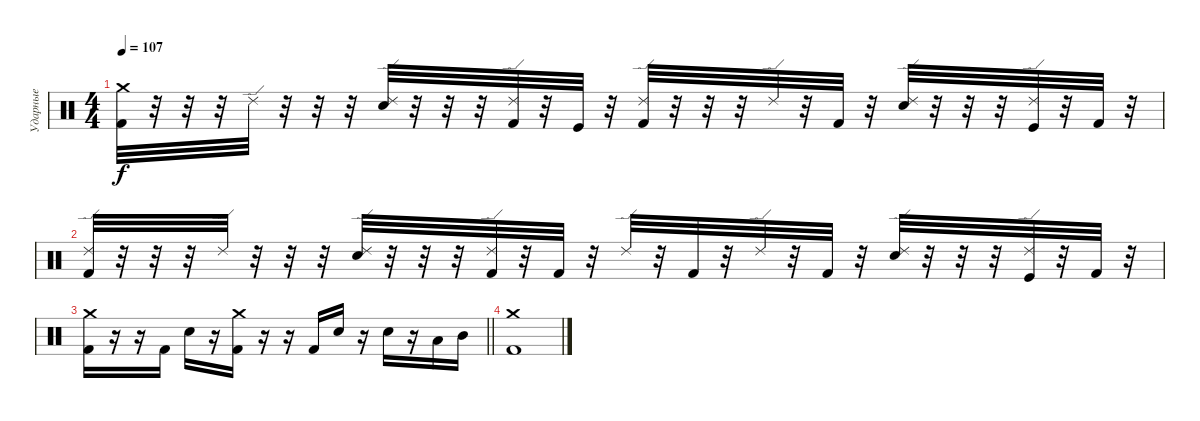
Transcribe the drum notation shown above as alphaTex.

\track ("Ударные" "Ударные") {instrument percussion}
\staff {score}
\articulation defaults
\ts (4 4)
\tempo 107
\clef neutral
\ks c
("Crash medium (hit)" "Kick (hit) 2").32{dy f} r.32 r.32 r.32 "Ride (edge) 2".32 r.32 r.32 r.32 ("Ride (edge) 2" "Electric Snare (hit)").32 r.32 r.32 r.32 ("Ride (edge) 2" "Kick (hit) 2").32 r.32 "Kick (hit)".32 r.32 ("Ride (edge) 2" "Kick (hit) 2").32 r.32 r.32 r.32 "Ride (edge) 2".32 r.32 "Kick (hit) 2".32 r.32 ("Ride (edge) 2" "Electric Snare (hit)").32 r.32 r.32 r.32 ("Ride (edge) 2" "Kick (hit)").32 r.32 "Kick (hit) 2".32 r.32 |
("Ride (edge) 2" "Kick (hit) 2").32 r.32 r.32 r.32 "Ride (edge) 2".32 r.32 r.32 r.32 ("Ride (edge) 2" "Electric Snare (hit)").32 r.32 r.32 r.32 ("Ride (edge) 2" "Kick (hit) 2").32 r.32 "Kick (hit) 2".32 r.32 "Ride (edge) 2".32 r.32 "Kick (hit) 2".32 r.32 "Ride (edge) 2".32 r.32 "Kick (hit) 2".32 r.32 ("Ride (edge) 2" "Electric Snare (hit)").32 r.32 r.32 r.32 ("Ride (edge) 2" "Kick (hit)").32 r.32 "Kick (hit) 2".32 r.32 |
\barLineRight lightlight
("Crash medium (hit)" "Kick (hit) 2").16 r.16 r.16 "Kick (hit) 2".16 "Electric Snare (hit)".16 r.16 ("Crash medium (hit)" "Kick (hit) 2").16 r.16 r.16 "Kick (hit) 2".16 "Electric Snare (hit)".16 r.16 "Electric Snare (hit)".16 r.16 "Low Tom (hit)".16 "Mid Tom (hit)".16 |
("Crash medium (hit)" "Kick (hit) 2").1
